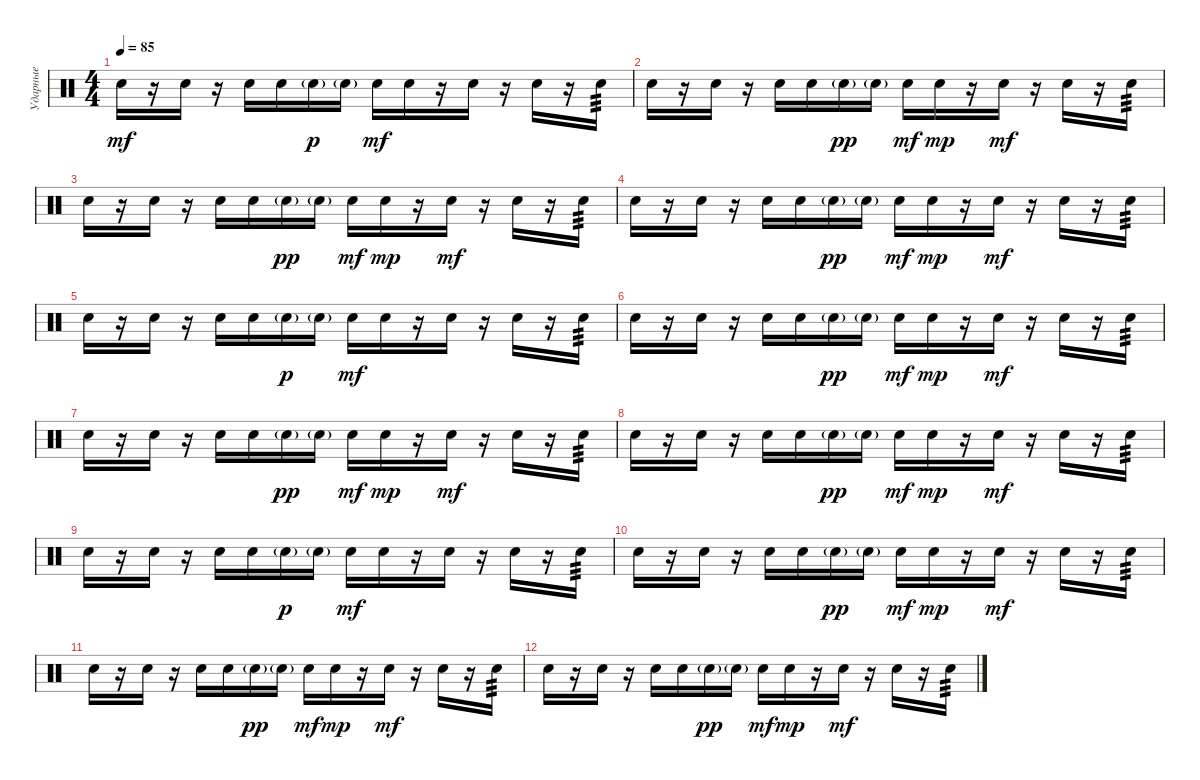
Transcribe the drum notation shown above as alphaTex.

\track ("Ударные" "Ударные") {instrument percussion}
\staff {score}
\articulation defaults
\ts (4 4)
\tempo 85
\clef neutral
\ks c "Hand Clap (hit)".16{dy mf}
r.16 "Hand Clap (hit)".16 r.16 "Hand Clap (hit)".16 "Hand Clap (hit)".16 "Hand Clap (hit)"{g}.16{dy p} "Hand Clap (hit)"{g}.16 "Hand Clap (hit)".16{dy mf} "Hand Clap (hit)".16 r.16 "Hand Clap (hit)".16 r.16 "Hand Clap (hit)".16 r.16 "Hand Clap (hit)".16{tp 3} |
"Hand Clap (hit)".16 r.16 "Hand Clap (hit)".16 r.16 "Hand Clap (hit)".16 "Hand Clap (hit)".16 "Hand Clap (hit)"{g}.16{dy pp} "Hand Clap (hit)"{g}.16 "Hand Clap (hit)".16{dy mf} "Hand Clap (hit)".16{dy mp} r.16 "Hand Clap (hit)".16{dy mf} r.16 "Hand Clap (hit)".16 r.16 "Hand Clap (hit)".16{tp 3} |
"Hand Clap (hit)".16 r.16 "Hand Clap (hit)".16 r.16 "Hand Clap (hit)".16 "Hand Clap (hit)".16 "Hand Clap (hit)"{g}.16{dy pp} "Hand Clap (hit)"{g}.16 "Hand Clap (hit)".16{dy mf} "Hand Clap (hit)".16{dy mp} r.16 "Hand Clap (hit)".16{dy mf} r.16 "Hand Clap (hit)".16 r.16 "Hand Clap (hit)".16{tp 3} |
"Hand Clap (hit)".16 r.16 "Hand Clap (hit)".16 r.16 "Hand Clap (hit)".16 "Hand Clap (hit)".16 "Hand Clap (hit)"{g}.16{dy pp} "Hand Clap (hit)"{g}.16 "Hand Clap (hit)".16{dy mf} "Hand Clap (hit)".16{dy mp} r.16 "Hand Clap (hit)".16{dy mf} r.16 "Hand Clap (hit)".16 r.16 "Hand Clap (hit)".16{tp 3} |
"Hand Clap (hit)".16 r.16 "Hand Clap (hit)".16 r.16 "Hand Clap (hit)".16 "Hand Clap (hit)".16 "Hand Clap (hit)"{g}.16{dy p} "Hand Clap (hit)"{g}.16 "Hand Clap (hit)".16{dy mf} "Hand Clap (hit)".16 r.16 "Hand Clap (hit)".16 r.16 "Hand Clap (hit)".16 r.16 "Hand Clap (hit)".16{tp 3} |
"Hand Clap (hit)".16 r.16 "Hand Clap (hit)".16 r.16 "Hand Clap (hit)".16 "Hand Clap (hit)".16 "Hand Clap (hit)"{g}.16{dy pp} "Hand Clap (hit)"{g}.16 "Hand Clap (hit)".16{dy mf} "Hand Clap (hit)".16{dy mp} r.16 "Hand Clap (hit)".16{dy mf} r.16 "Hand Clap (hit)".16 r.16 "Hand Clap (hit)".16{tp 3} |
"Hand Clap (hit)".16 r.16 "Hand Clap (hit)".16 r.16 "Hand Clap (hit)".16 "Hand Clap (hit)".16 "Hand Clap (hit)"{g}.16{dy pp} "Hand Clap (hit)"{g}.16 "Hand Clap (hit)".16{dy mf} "Hand Clap (hit)".16{dy mp} r.16 "Hand Clap (hit)".16{dy mf} r.16 "Hand Clap (hit)".16 r.16 "Hand Clap (hit)".16{tp 3} |
"Hand Clap (hit)".16 r.16 "Hand Clap (hit)".16 r.16 "Hand Clap (hit)".16 "Hand Clap (hit)".16 "Hand Clap (hit)"{g}.16{dy pp} "Hand Clap (hit)"{g}.16 "Hand Clap (hit)".16{dy mf} "Hand Clap (hit)".16{dy mp} r.16 "Hand Clap (hit)".16{dy mf} r.16 "Hand Clap (hit)".16 r.16 "Hand Clap (hit)".16{tp 3} |
"Hand Clap (hit)".16 r.16 "Hand Clap (hit)".16 r.16 "Hand Clap (hit)".16 "Hand Clap (hit)".16 "Hand Clap (hit)"{g}.16{dy p} "Hand Clap (hit)"{g}.16 "Hand Clap (hit)".16{dy mf} "Hand Clap (hit)".16 r.16 "Hand Clap (hit)".16 r.16 "Hand Clap (hit)".16 r.16 "Hand Clap (hit)".16{tp 3} |
"Hand Clap (hit)".16 r.16 "Hand Clap (hit)".16 r.16 "Hand Clap (hit)".16 "Hand Clap (hit)".16 "Hand Clap (hit)"{g}.16{dy pp} "Hand Clap (hit)"{g}.16 "Hand Clap (hit)".16{dy mf} "Hand Clap (hit)".16{dy mp} r.16 "Hand Clap (hit)".16{dy mf} r.16 "Hand Clap (hit)".16 r.16 "Hand Clap (hit)".16{tp 3} |
"Hand Clap (hit)".16 r.16 "Hand Clap (hit)".16 r.16 "Hand Clap (hit)".16 "Hand Clap (hit)".16 "Hand Clap (hit)"{g}.16{dy pp} "Hand Clap (hit)"{g}.16 "Hand Clap (hit)".16{dy mf} "Hand Clap (hit)".16{dy mp} r.16 "Hand Clap (hit)".16{dy mf} r.16 "Hand Clap (hit)".16 r.16 "Hand Clap (hit)".16{tp 3} |
"Hand Clap (hit)".16 r.16 "Hand Clap (hit)".16 r.16 "Hand Clap (hit)".16 "Hand Clap (hit)".16 "Hand Clap (hit)"{g}.16{dy pp} "Hand Clap (hit)"{g}.16 "Hand Clap (hit)".16{dy mf} "Hand Clap (hit)".16{dy mp} r.16 "Hand Clap (hit)".16{dy mf} r.16 "Hand Clap (hit)".16 r.16 "Hand Clap (hit)".16{tp 3}
